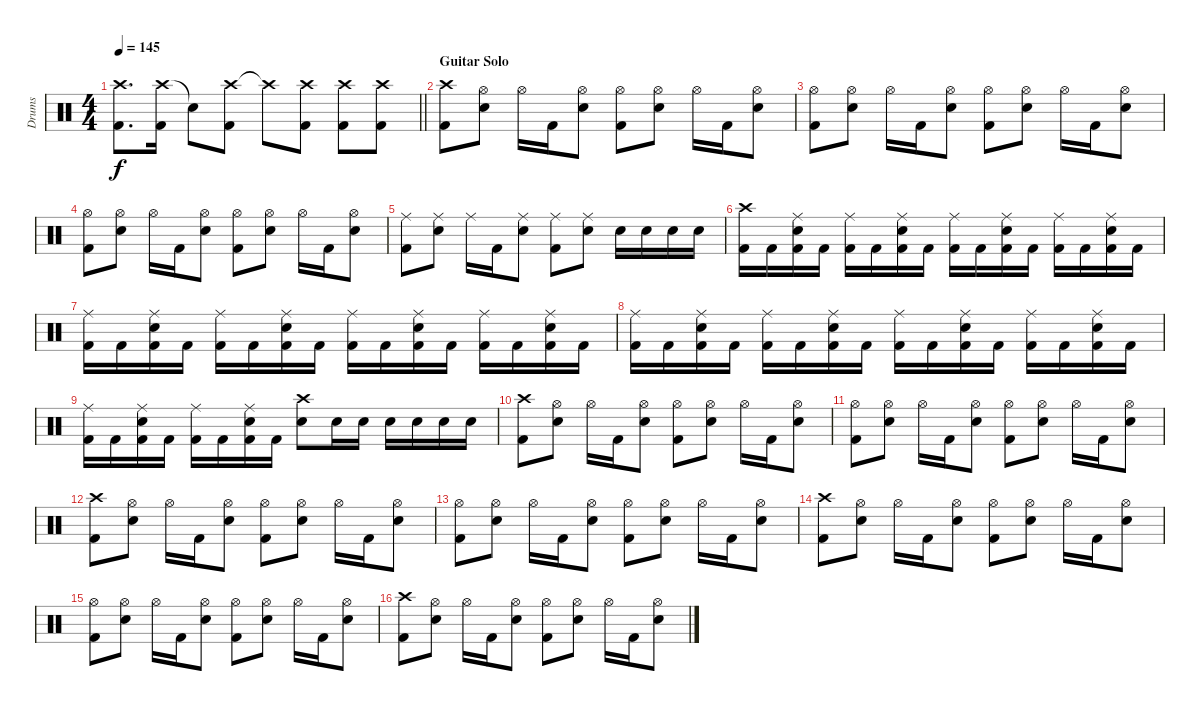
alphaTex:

\track ("Drums" "Drums") {instrument percussion}
\staff {score}
\articulation defaults
\ts (4 4)
\tempo 145
\clef neutral
\barLineRight lightlight
\ks c
("Crash high (hit)" "Kick (hit) 2").8{d dy f} ("Crash high (hit)" "Kick (hit) 2").16 "Snare (hit)"{t}.8 ("Crash high (hit)" "Kick (hit) 2").8 "Crash high (hit)"{t}.8 ("Crash high (hit)" "Kick (hit) 2").8 ("Crash high (hit)" "Kick (hit) 2").8 ("Crash high (hit)" "Kick (hit) 2").8 |
\section ("" "Guitar Solo")
("Crash high (hit)" "Kick (hit) 2").8 ("Hi-Hat (open)" "Snare (hit) 2").8 "Hi-Hat (open)".16 "Kick (hit) 2".16 ("Hi-Hat (open)" "Snare (hit) 2").8 ("Hi-Hat (open)" "Kick (hit) 2").8 ("Hi-Hat (open)" "Snare (hit) 2").8 "Hi-Hat (open)".16 "Kick (hit) 2".16 ("Hi-Hat (open)" "Snare (hit) 2").8 |
("Hi-Hat (open)" "Kick (hit) 2").8 ("Hi-Hat (open)" "Snare (hit) 2").8 "Hi-Hat (open)".16 "Kick (hit) 2".16 ("Hi-Hat (open)" "Snare (hit) 2").8 ("Hi-Hat (open)" "Kick (hit) 2").8 ("Hi-Hat (open)" "Snare (hit) 2").8 "Hi-Hat (open)".16 "Kick (hit) 2".16 ("Hi-Hat (open)" "Snare (hit) 2").8 |
("Hi-Hat (open)" "Kick (hit) 2").8 ("Hi-Hat (open)" "Snare (hit) 2").8 "Hi-Hat (open)".16 "Kick (hit) 2".16 ("Hi-Hat (open)" "Snare (hit) 2").8 ("Hi-Hat (open)" "Kick (hit) 2").8 ("Hi-Hat (open)" "Snare (hit) 2").8 "Hi-Hat (open)".16 "Kick (hit) 2".16 ("Hi-Hat (open)" "Snare (hit) 2").8 |
("Ride (middle)" "Kick (hit) 2").8 ("Ride (middle)" "Snare (hit) 2").8 "Ride (middle)".16 "Kick (hit) 2".16 ("Ride (middle)" "Snare (hit) 2").8 ("Ride (middle)" "Kick (hit) 2").8 ("Ride (middle)" "Snare (hit) 2").8 "Snare (hit) 2".16 "Snare (hit) 2".16 "Snare (hit) 2".16 "Snare (hit) 2".16 |
("Crash high (hit)" "Kick (hit) 2").16 "Kick (hit) 2".16 ("Ride (middle)" "Snare (hit) 2" "Kick (hit) 2").16 "Kick (hit) 2".16 ("Ride (middle)" "Kick (hit) 2").16 "Kick (hit) 2".16 ("Ride (middle)" "Snare (hit) 2" "Kick (hit) 2").16 "Kick (hit) 2".16 ("Ride (middle)" "Kick (hit) 2").16 "Kick (hit) 2".16 ("Ride (middle)" "Snare (hit) 2" "Kick (hit) 2").16 "Kick (hit) 2".16 ("Ride (middle)" "Kick (hit) 2").16 "Kick (hit) 2".16 ("Ride (middle)" "Snare (hit) 2" "Kick (hit) 2").16 "Kick (hit) 2".16 |
("Ride (middle)" "Kick (hit) 2").16 "Kick (hit) 2".16 ("Ride (middle)" "Snare (hit) 2" "Kick (hit) 2").16 "Kick (hit) 2".16 ("Ride (middle)" "Kick (hit) 2").16 "Kick (hit) 2".16 ("Ride (middle)" "Snare (hit) 2" "Kick (hit) 2").16 "Kick (hit) 2".16 ("Ride (middle)" "Kick (hit) 2").16 "Kick (hit) 2".16 ("Ride (middle)" "Snare (hit) 2" "Kick (hit) 2").16 "Kick (hit) 2".16 ("Ride (middle)" "Kick (hit) 2").16 "Kick (hit) 2".16 ("Ride (middle)" "Snare (hit) 2" "Kick (hit) 2").16 "Kick (hit) 2".16 |
("Ride (middle)" "Kick (hit) 2").16 "Kick (hit) 2".16 ("Ride (middle)" "Snare (hit) 2" "Kick (hit) 2").16 "Kick (hit) 2".16 ("Ride (middle)" "Kick (hit) 2").16 "Kick (hit) 2".16 ("Ride (middle)" "Snare (hit) 2" "Kick (hit) 2").16 "Kick (hit) 2".16 ("Ride (middle)" "Kick (hit) 2").16 "Kick (hit) 2".16 ("Ride (middle)" "Snare (hit) 2" "Kick (hit) 2").16 "Kick (hit) 2".16 ("Ride (middle)" "Kick (hit) 2").16 "Kick (hit) 2".16 ("Ride (middle)" "Snare (hit) 2" "Kick (hit) 2").16 "Kick (hit) 2".16 |
("Ride (middle)" "Kick (hit) 2").16 "Kick (hit) 2".16 ("Ride (middle)" "Snare (hit) 2" "Kick (hit) 2").16 "Kick (hit) 2".16 ("Ride (middle)" "Kick (hit) 2").16 "Kick (hit) 2".16 ("Ride (middle)" "Snare (hit) 2" "Kick (hit) 2").16 "Kick (hit) 2".16 ("Crash high (hit)" "Snare (hit) 2").8 "Snare (hit) 2".16 "Snare (hit) 2".16 "Snare (hit) 2".16 "Snare (hit) 2".16 "Snare (hit) 2".16 "Snare (hit) 2".16 |
("Crash high (hit)" "Kick (hit) 2").8 ("Hi-Hat (open)" "Snare (hit) 2").8 "Hi-Hat (open)".16 "Kick (hit) 2".16 ("Hi-Hat (open)" "Snare (hit) 2").8 ("Hi-Hat (open)" "Kick (hit) 2").8 ("Hi-Hat (open)" "Snare (hit) 2").8 "Hi-Hat (open)".16 "Kick (hit) 2".16 ("Hi-Hat (open)" "Snare (hit) 2").8 |
("Hi-Hat (open)" "Kick (hit) 2").8 ("Hi-Hat (open)" "Snare (hit) 2").8 "Hi-Hat (open)".16 "Kick (hit) 2".16 ("Hi-Hat (open)" "Snare (hit) 2").8 ("Hi-Hat (open)" "Kick (hit) 2").8 ("Hi-Hat (open)" "Snare (hit) 2").8 "Hi-Hat (open)".16 "Kick (hit) 2".16 ("Hi-Hat (open)" "Snare (hit) 2").8 |
("Crash high (hit)" "Kick (hit) 2").8 ("Hi-Hat (open)" "Snare (hit) 2").8 "Hi-Hat (open)".16 "Kick (hit) 2".16 ("Hi-Hat (open)" "Snare (hit) 2").8 ("Hi-Hat (open)" "Kick (hit) 2").8 ("Hi-Hat (open)" "Snare (hit) 2").8 "Hi-Hat (open)".16 "Kick (hit) 2".16 ("Hi-Hat (open)" "Snare (hit) 2").8 |
("Hi-Hat (open)" "Kick (hit) 2").8 ("Hi-Hat (open)" "Snare (hit) 2").8 "Hi-Hat (open)".16 "Kick (hit) 2".16 ("Hi-Hat (open)" "Snare (hit) 2").8 ("Hi-Hat (open)" "Kick (hit) 2").8 ("Hi-Hat (open)" "Snare (hit) 2").8 "Hi-Hat (open)".16 "Kick (hit) 2".16 ("Hi-Hat (open)" "Snare (hit) 2").8 |
("Crash high (hit)" "Kick (hit) 2").8 ("Hi-Hat (open)" "Snare (hit) 2").8 "Hi-Hat (open)".16 "Kick (hit) 2".16 ("Hi-Hat (open)" "Snare (hit) 2").8 ("Hi-Hat (open)" "Kick (hit) 2").8 ("Hi-Hat (open)" "Snare (hit) 2").8 "Hi-Hat (open)".16 "Kick (hit) 2".16 ("Hi-Hat (open)" "Snare (hit) 2").8 |
("Hi-Hat (open)" "Kick (hit) 2").8 ("Hi-Hat (open)" "Snare (hit) 2").8 "Hi-Hat (open)".16 "Kick (hit) 2".16 ("Hi-Hat (open)" "Snare (hit) 2").8 ("Hi-Hat (open)" "Kick (hit) 2").8 ("Hi-Hat (open)" "Snare (hit) 2").8 "Hi-Hat (open)".16 "Kick (hit) 2".16 ("Hi-Hat (open)" "Snare (hit) 2").8 |
("Crash high (hit)" "Kick (hit) 2").8 ("Hi-Hat (open)" "Snare (hit) 2").8 "Hi-Hat (open)".16 "Kick (hit) 2".16 ("Hi-Hat (open)" "Snare (hit) 2").8 ("Hi-Hat (open)" "Kick (hit) 2").8 ("Hi-Hat (open)" "Snare (hit) 2").8 "Hi-Hat (open)".16 "Kick (hit) 2".16 ("Hi-Hat (open)" "Snare (hit) 2").8
